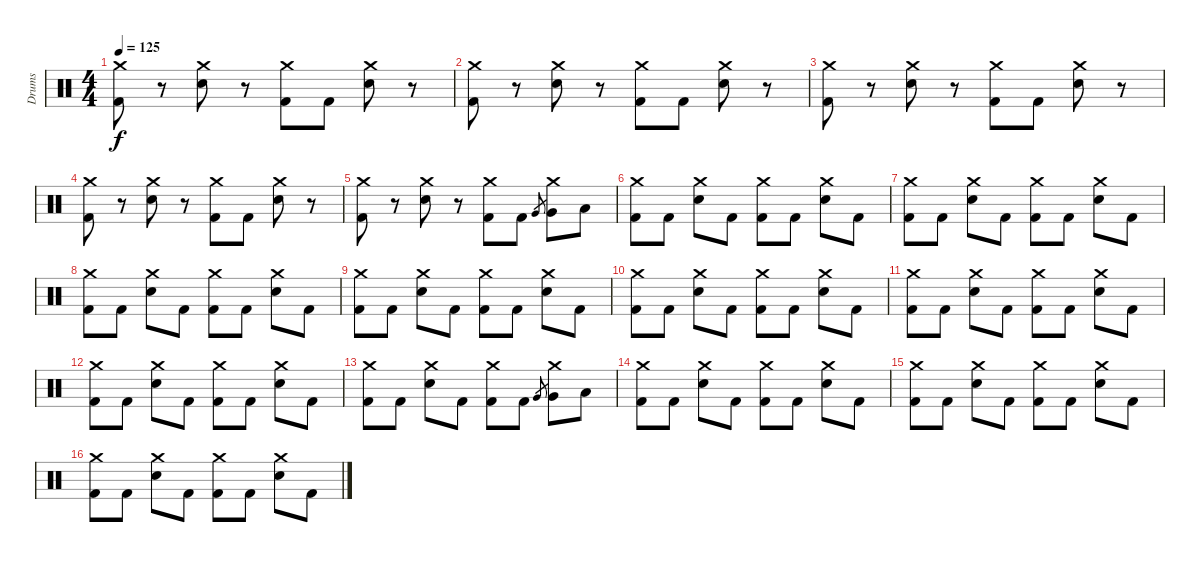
\track ("Drums" "Drums") {instrument percussion}
\staff {score}
\articulation defaults
\ts (4 4)
\tempo 125
\clef neutral
\ks c
("Crash medium (hit)" "Kick (hit) 2").8{dy f} r.8 ("Crash medium (hit)" "Electric Snare (hit)").8 r.8 ("Crash medium (hit)" "Kick (hit) 2").8 "Kick (hit) 2".8 ("Crash medium (hit)" "Electric Snare (hit)").8 r.8 |
("Crash medium (hit)" "Kick (hit) 2").8 r.8 ("Crash medium (hit)" "Electric Snare (hit)").8 r.8 ("Crash medium (hit)" "Kick (hit) 2").8 "Kick (hit) 2".8 ("Crash medium (hit)" "Electric Snare (hit)").8 r.8 |
("Crash medium (hit)" "Kick (hit) 2").8 r.8 ("Crash medium (hit)" "Electric Snare (hit)").8 r.8 ("Crash medium (hit)" "Kick (hit) 2").8 "Kick (hit) 2".8 ("Crash medium (hit)" "Electric Snare (hit)").8 r.8 |
("Crash medium (hit)" "Kick (hit) 2").8 r.8 ("Crash medium (hit)" "Electric Snare (hit)").8 r.8 ("Crash medium (hit)" "Kick (hit) 2").8 "Kick (hit) 2".8 ("Crash medium (hit)" "Electric Snare (hit)").8 r.8 |
("Crash medium (hit)" "Kick (hit) 2").8 r.8 ("Crash medium (hit)" "Electric Snare (hit)").8 r.8 ("Crash medium (hit)" "Kick (hit) 2").8 "Kick (hit) 2".8 "Very Low Tom (hit)".8{gr} ("Crash medium (hit)" "Very Low Tom (hit)").8 "Low Floor Tom (hit)".8 |
("Crash medium (hit)" "Kick (hit) 2").8 "Kick (hit) 2".8 ("Crash medium (hit)" "Electric Snare (hit)").8 "Kick (hit) 2".8 ("Crash medium (hit)" "Kick (hit) 2").8 "Kick (hit) 2".8 ("Crash medium (hit)" "Electric Snare (hit)").8 "Kick (hit) 2".8 |
("Crash medium (hit)" "Kick (hit) 2").8 "Kick (hit) 2".8 ("Crash medium (hit)" "Electric Snare (hit)").8 "Kick (hit) 2".8 ("Crash medium (hit)" "Kick (hit) 2").8 "Kick (hit) 2".8 ("Crash medium (hit)" "Electric Snare (hit)").8 "Kick (hit) 2".8 |
("Crash medium (hit)" "Kick (hit) 2").8 "Kick (hit) 2".8 ("Crash medium (hit)" "Electric Snare (hit)").8 "Kick (hit) 2".8 ("Crash medium (hit)" "Kick (hit) 2").8 "Kick (hit) 2".8 ("Crash medium (hit)" "Electric Snare (hit)").8 "Kick (hit) 2".8 |
("Crash medium (hit)" "Kick (hit) 2").8 "Kick (hit) 2".8 ("Crash medium (hit)" "Electric Snare (hit)").8 "Kick (hit) 2".8 ("Crash medium (hit)" "Kick (hit) 2").8 "Kick (hit) 2".8 ("Crash medium (hit)" "Electric Snare (hit)").8 "Kick (hit) 2".8 |
("Crash medium (hit)" "Kick (hit) 2").8 "Kick (hit) 2".8 ("Crash medium (hit)" "Electric Snare (hit)").8 "Kick (hit) 2".8 ("Crash medium (hit)" "Kick (hit) 2").8 "Kick (hit) 2".8 ("Crash medium (hit)" "Electric Snare (hit)").8 "Kick (hit) 2".8 |
("Crash medium (hit)" "Kick (hit) 2").8 "Kick (hit) 2".8 ("Crash medium (hit)" "Electric Snare (hit)").8 "Kick (hit) 2".8 ("Crash medium (hit)" "Kick (hit) 2").8 "Kick (hit) 2".8 ("Crash medium (hit)" "Electric Snare (hit)").8 "Kick (hit) 2".8 |
("Crash medium (hit)" "Kick (hit) 2").8 "Kick (hit) 2".8 ("Crash medium (hit)" "Electric Snare (hit)").8 "Kick (hit) 2".8 ("Crash medium (hit)" "Kick (hit) 2").8 "Kick (hit) 2".8 ("Crash medium (hit)" "Electric Snare (hit)").8 "Kick (hit) 2".8 |
("Crash medium (hit)" "Kick (hit) 2").8 "Kick (hit) 2".8 ("Crash medium (hit)" "Electric Snare (hit)").8 "Kick (hit) 2".8 ("Crash medium (hit)" "Kick (hit) 2").8 "Kick (hit) 2".8 "Very Low Tom (hit)".8{gr} ("Crash medium (hit)" "Very Low Tom (hit)").8 "Low Floor Tom (hit)".8 |
("Crash medium (hit)" "Kick (hit) 2").8 "Kick (hit) 2".8 ("Crash medium (hit)" "Electric Snare (hit)").8 "Kick (hit) 2".8 ("Crash medium (hit)" "Kick (hit) 2").8 "Kick (hit) 2".8 ("Crash medium (hit)" "Electric Snare (hit)").8 "Kick (hit) 2".8 |
("Crash medium (hit)" "Kick (hit) 2").8 "Kick (hit) 2".8 ("Crash medium (hit)" "Electric Snare (hit)").8 "Kick (hit) 2".8 ("Crash medium (hit)" "Kick (hit) 2").8 "Kick (hit) 2".8 ("Crash medium (hit)" "Electric Snare (hit)").8 "Kick (hit) 2".8 |
("Crash medium (hit)" "Kick (hit) 2").8 "Kick (hit) 2".8 ("Crash medium (hit)" "Electric Snare (hit)").8 "Kick (hit) 2".8 ("Crash medium (hit)" "Kick (hit) 2").8 "Kick (hit) 2".8 ("Crash medium (hit)" "Electric Snare (hit)").8 "Kick (hit) 2".8
